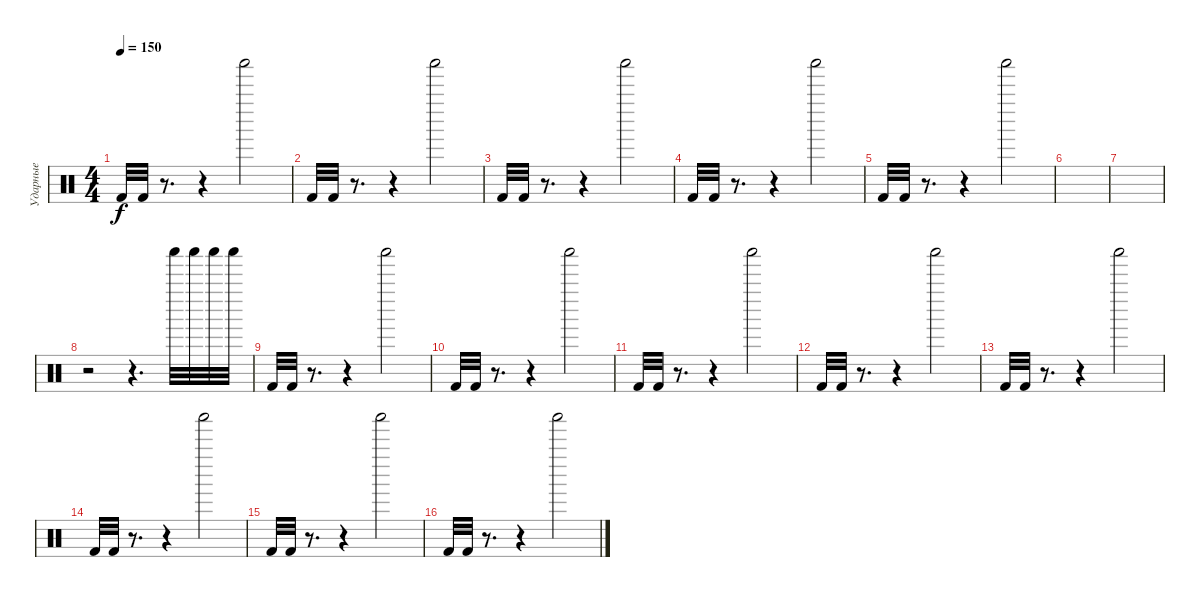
\track ("Ударные" "Ударные") {instrument percussion}
\staff {score}
\articulation defaults
\ts (4 4)
\tempo 150
\clef neutral
\ks c "Kick (hit) 2".32{dy f} "Kick (hit) 2".32
r.8{d} r.4 "Shaker (hit)".2 |
"Kick (hit) 2".32 "Kick (hit) 2".32 r.8{d} r.4 "Shaker (hit)".2 |
"Kick (hit) 2".32 "Kick (hit) 2".32 r.8{d} r.4 "Shaker (hit)".2 |
"Kick (hit) 2".32 "Kick (hit) 2".32 r.8{d} r.4 "Shaker (hit)".2 |
"Kick (hit) 2".32 "Kick (hit) 2".32 r.8{d} r.4 "Shaker (hit)".2 |
|
|
r.2 r.4{d} "Shaker (hit)".32 "Shaker (hit)".32 "Shaker (hit)".32 "Shaker (hit)".32 |
"Kick (hit) 2".32 "Kick (hit) 2".32 r.8{d} r.4 "Shaker (hit)".2 |
"Kick (hit) 2".32 "Kick (hit) 2".32 r.8{d} r.4 "Shaker (hit)".2 |
"Kick (hit) 2".32 "Kick (hit) 2".32 r.8{d} r.4 "Shaker (hit)".2 |
"Kick (hit) 2".32 "Kick (hit) 2".32 r.8{d} r.4 "Shaker (hit)".2 |
"Kick (hit) 2".32 "Kick (hit) 2".32 r.8{d} r.4 "Shaker (hit)".2 |
"Kick (hit) 2".32 "Kick (hit) 2".32 r.8{d} r.4 "Shaker (hit)".2 |
"Kick (hit) 2".32 "Kick (hit) 2".32 r.8{d} r.4 "Shaker (hit)".2 |
"Kick (hit) 2".32 "Kick (hit) 2".32 r.8{d} r.4 "Shaker (hit)".2
